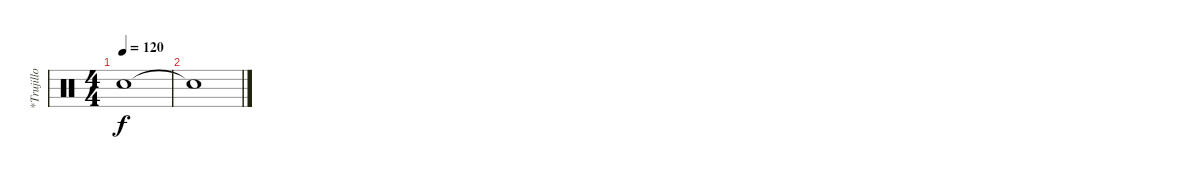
\track ("*Trujillo" "*Trujillo") {instrument percussion}
\staff {score}
\articulation defaults
\ts (4 4)
\tempo 120
\clef neutral
\ks c "Snare (hit)"{t}.1{dy f}
|
"Snare (hit)"{t}.1
